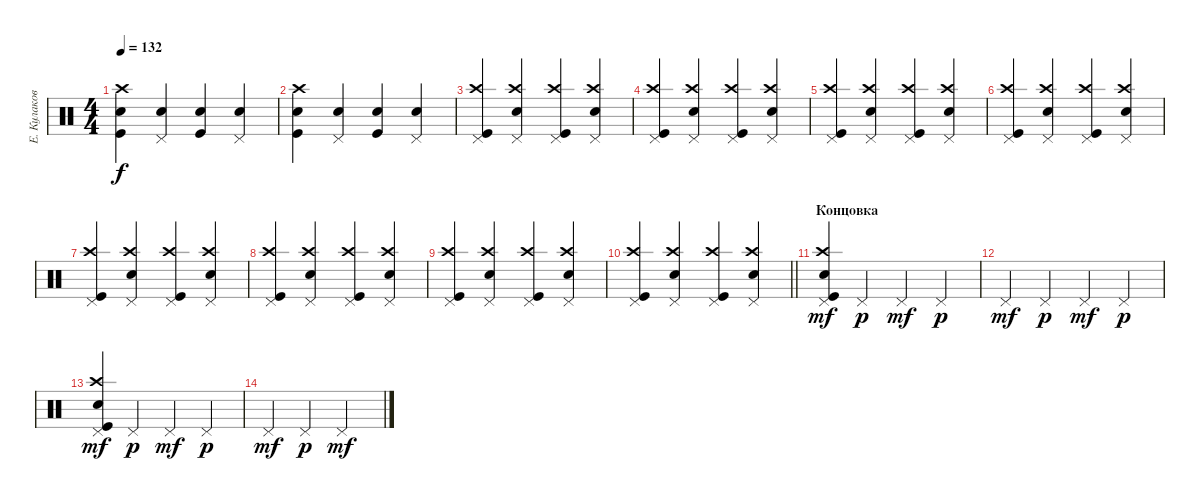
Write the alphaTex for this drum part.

\track ("Е. Кулаков" "Е. Кулаков") {instrument percussion}
\staff {score}
\articulation defaults
\ts (4 4)
\tempo 132
\clef neutral
\ks c
("Snare (hit) 2" "Kick (hit)" "Crash high (hit)").4{dy f} ("Pedal Hi-Hat (hit)" "Snare (hit) 2").4 ("Snare (hit) 2" "Kick (hit)").4 ("Pedal Hi-Hat (hit)" "Snare (hit) 2").4 |
("Snare (hit) 2" "Kick (hit)" "Crash high (hit)").4 ("Pedal Hi-Hat (hit)" "Snare (hit) 2").4 ("Snare (hit) 2" "Kick (hit)").4 ("Pedal Hi-Hat (hit)" "Snare (hit) 2").4 |
("Kick (hit)" "Crash high (hit)" "Pedal Hi-Hat (hit)").4 ("Snare (hit) 2" "Crash high (hit)" "Pedal Hi-Hat (hit)").4 ("Kick (hit)" "Crash high (hit)" "Pedal Hi-Hat (hit)").4 ("Snare (hit) 2" "Crash high (hit)" "Pedal Hi-Hat (hit)").4 |
("Kick (hit)" "Crash high (hit)" "Pedal Hi-Hat (hit)").4 ("Snare (hit) 2" "Crash high (hit)" "Pedal Hi-Hat (hit)").4 ("Kick (hit)" "Crash high (hit)" "Pedal Hi-Hat (hit)").4 ("Snare (hit) 2" "Crash high (hit)" "Pedal Hi-Hat (hit)").4 |
("Kick (hit)" "Crash high (hit)" "Pedal Hi-Hat (hit)").4 ("Snare (hit) 2" "Crash high (hit)" "Pedal Hi-Hat (hit)").4 ("Kick (hit)" "Crash high (hit)" "Pedal Hi-Hat (hit)").4 ("Snare (hit) 2" "Crash high (hit)" "Pedal Hi-Hat (hit)").4 |
("Kick (hit)" "Crash high (hit)" "Pedal Hi-Hat (hit)").4 ("Snare (hit) 2" "Crash high (hit)" "Pedal Hi-Hat (hit)").4 ("Kick (hit)" "Crash high (hit)" "Pedal Hi-Hat (hit)").4 ("Snare (hit) 2" "Crash high (hit)" "Pedal Hi-Hat (hit)").4 |
("Kick (hit)" "Crash high (hit)" "Pedal Hi-Hat (hit)").4 ("Snare (hit) 2" "Crash high (hit)" "Pedal Hi-Hat (hit)").4 ("Kick (hit)" "Crash high (hit)" "Pedal Hi-Hat (hit)").4 ("Snare (hit) 2" "Crash high (hit)" "Pedal Hi-Hat (hit)").4 |
("Kick (hit)" "Crash high (hit)" "Pedal Hi-Hat (hit)").4 ("Snare (hit) 2" "Crash high (hit)" "Pedal Hi-Hat (hit)").4 ("Kick (hit)" "Crash high (hit)" "Pedal Hi-Hat (hit)").4 ("Snare (hit) 2" "Crash high (hit)" "Pedal Hi-Hat (hit)").4 |
("Kick (hit)" "Crash high (hit)" "Pedal Hi-Hat (hit)").4 ("Snare (hit) 2" "Crash high (hit)" "Pedal Hi-Hat (hit)").4 ("Kick (hit)" "Crash high (hit)" "Pedal Hi-Hat (hit)").4 ("Snare (hit) 2" "Crash high (hit)" "Pedal Hi-Hat (hit)").4 |
\barLineRight lightlight
("Kick (hit)" "Crash high (hit)" "Pedal Hi-Hat (hit)").4 ("Snare (hit) 2" "Crash high (hit)" "Pedal Hi-Hat (hit)").4 ("Kick (hit)" "Crash high (hit)" "Pedal Hi-Hat (hit)").4 ("Snare (hit) 2" "Crash high (hit)" "Pedal Hi-Hat (hit)").4 |
\section ("" "Концовка")
("Snare (hit) 2" "Kick (hit)" "Crash high (hit)" "Pedal Hi-Hat (hit)").4{dy mf} "Pedal Hi-Hat (hit)".4{dy p} "Pedal Hi-Hat (hit)".4{dy mf} "Pedal Hi-Hat (hit)".4{dy p} |
"Pedal Hi-Hat (hit)".4{dy mf} "Pedal Hi-Hat (hit)".4{dy p} "Pedal Hi-Hat (hit)".4{dy mf} "Pedal Hi-Hat (hit)".4{dy p} |
("Snare (hit) 2" "Kick (hit)" "Crash high (hit)" "Pedal Hi-Hat (hit)").4{dy mf} "Pedal Hi-Hat (hit)".4{dy p} "Pedal Hi-Hat (hit)".4{dy mf} "Pedal Hi-Hat (hit)".4{dy p} |
"Pedal Hi-Hat (hit)".4{dy mf} "Pedal Hi-Hat (hit)".4{dy p} "Pedal Hi-Hat (hit)".2{dy mf}
